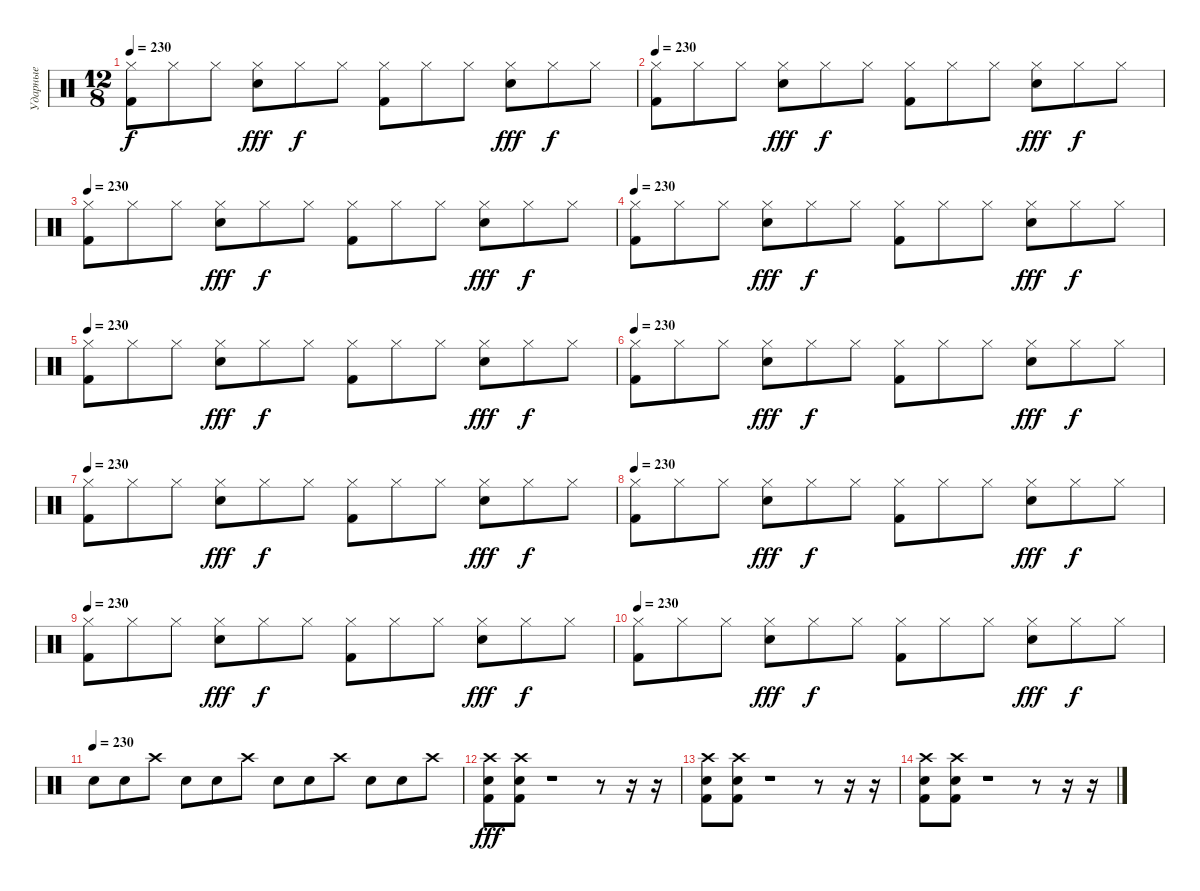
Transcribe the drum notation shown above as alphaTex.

\track ("Ударные" "Ударные") {instrument percussion}
\staff {score}
\articulation defaults
\ts (12 8)
\tempo 230
\clef neutral
\ks c
("Hi-Hat (closed)" "Kick (hit) 2").8{dy f} "Hi-Hat (closed)".8 "Hi-Hat (closed)".8 ("Hi-Hat (closed)" "Snare (hit) 2").8{dy fff} "Hi-Hat (closed)".8{dy f} "Hi-Hat (closed)".8 ("Hi-Hat (closed)" "Kick (hit) 2").8 "Hi-Hat (closed)".8 "Hi-Hat (closed)".8 ("Hi-Hat (closed)" "Snare (hit) 2").8{dy fff} "Hi-Hat (closed)".8{dy f} "Hi-Hat (closed)".8 |
\tempo 230
("Hi-Hat (closed)" "Kick (hit) 2").8 "Hi-Hat (closed)".8 "Hi-Hat (closed)".8 ("Hi-Hat (closed)" "Snare (hit) 2").8{dy fff} "Hi-Hat (closed)".8{dy f} "Hi-Hat (closed)".8 ("Hi-Hat (closed)" "Kick (hit) 2").8 "Hi-Hat (closed)".8 "Hi-Hat (closed)".8 ("Hi-Hat (closed)" "Snare (hit) 2").8{dy fff} "Hi-Hat (closed)".8{dy f} "Hi-Hat (closed)".8 |
\tempo 230
("Hi-Hat (closed)" "Kick (hit) 2").8 "Hi-Hat (closed)".8 "Hi-Hat (closed)".8 ("Hi-Hat (closed)" "Snare (hit) 2").8{dy fff} "Hi-Hat (closed)".8{dy f} "Hi-Hat (closed)".8 ("Hi-Hat (closed)" "Kick (hit) 2").8 "Hi-Hat (closed)".8 "Hi-Hat (closed)".8 ("Hi-Hat (closed)" "Snare (hit) 2").8{dy fff} "Hi-Hat (closed)".8{dy f} "Hi-Hat (closed)".8 |
\tempo 230
("Hi-Hat (closed)" "Kick (hit) 2").8 "Hi-Hat (closed)".8 "Hi-Hat (closed)".8 ("Hi-Hat (closed)" "Snare (hit) 2").8{dy fff} "Hi-Hat (closed)".8{dy f} "Hi-Hat (closed)".8 ("Hi-Hat (closed)" "Kick (hit) 2").8 "Hi-Hat (closed)".8 "Hi-Hat (closed)".8 ("Hi-Hat (closed)" "Snare (hit) 2").8{dy fff} "Hi-Hat (closed)".8{dy f} "Hi-Hat (closed)".8 |
\tempo 230
("Hi-Hat (closed)" "Kick (hit) 2").8 "Hi-Hat (closed)".8 "Hi-Hat (closed)".8 ("Hi-Hat (closed)" "Snare (hit) 2").8{dy fff} "Hi-Hat (closed)".8{dy f} "Hi-Hat (closed)".8 ("Hi-Hat (closed)" "Kick (hit) 2").8 "Hi-Hat (closed)".8 "Hi-Hat (closed)".8 ("Hi-Hat (closed)" "Snare (hit) 2").8{dy fff} "Hi-Hat (closed)".8{dy f} "Hi-Hat (closed)".8 |
\tempo 230
("Hi-Hat (closed)" "Kick (hit) 2").8 "Hi-Hat (closed)".8 "Hi-Hat (closed)".8 ("Hi-Hat (closed)" "Snare (hit) 2").8{dy fff} "Hi-Hat (closed)".8{dy f} "Hi-Hat (closed)".8 ("Hi-Hat (closed)" "Kick (hit) 2").8 "Hi-Hat (closed)".8 "Hi-Hat (closed)".8 ("Hi-Hat (closed)" "Snare (hit) 2").8{dy fff} "Hi-Hat (closed)".8{dy f} "Hi-Hat (closed)".8 |
\tempo 230
("Hi-Hat (closed)" "Kick (hit) 2").8 "Hi-Hat (closed)".8 "Hi-Hat (closed)".8 ("Hi-Hat (closed)" "Snare (hit) 2").8{dy fff} "Hi-Hat (closed)".8{dy f} "Hi-Hat (closed)".8 ("Hi-Hat (closed)" "Kick (hit) 2").8 "Hi-Hat (closed)".8 "Hi-Hat (closed)".8 ("Hi-Hat (closed)" "Snare (hit) 2").8{dy fff} "Hi-Hat (closed)".8{dy f} "Hi-Hat (closed)".8 |
\tempo 230
("Hi-Hat (closed)" "Kick (hit) 2").8 "Hi-Hat (closed)".8 "Hi-Hat (closed)".8 ("Hi-Hat (closed)" "Snare (hit) 2").8{dy fff} "Hi-Hat (closed)".8{dy f} "Hi-Hat (closed)".8 ("Hi-Hat (closed)" "Kick (hit) 2").8 "Hi-Hat (closed)".8 "Hi-Hat (closed)".8 ("Hi-Hat (closed)" "Snare (hit) 2").8{dy fff} "Hi-Hat (closed)".8{dy f} "Hi-Hat (closed)".8 |
\tempo 230
("Hi-Hat (closed)" "Kick (hit) 2").8 "Hi-Hat (closed)".8 "Hi-Hat (closed)".8 ("Hi-Hat (closed)" "Snare (hit) 2").8{dy fff} "Hi-Hat (closed)".8{dy f} "Hi-Hat (closed)".8 ("Hi-Hat (closed)" "Kick (hit) 2").8 "Hi-Hat (closed)".8 "Hi-Hat (closed)".8 ("Hi-Hat (closed)" "Snare (hit) 2").8{dy fff} "Hi-Hat (closed)".8{dy f} "Hi-Hat (closed)".8 |
\tempo 230
("Hi-Hat (closed)" "Kick (hit) 2").8 "Hi-Hat (closed)".8 "Hi-Hat (closed)".8 ("Hi-Hat (closed)" "Snare (hit) 2").8{dy fff} "Hi-Hat (closed)".8{dy f} "Hi-Hat (closed)".8 ("Hi-Hat (closed)" "Kick (hit) 2").8 "Hi-Hat (closed)".8 "Hi-Hat (closed)".8 ("Hi-Hat (closed)" "Snare (hit) 2").8{dy fff} "Hi-Hat (closed)".8{dy f} "Hi-Hat (closed)".8 |
\tempo (230)
"Snare (hit) 2".8 "Snare (hit) 2".8 "Crash high (hit)".8 "Snare (hit) 2".8 "Snare (hit) 2".8 "Crash high (hit)".8 "Snare (hit) 2".8 "Snare (hit) 2".8 "Crash high (hit)".8 "Snare (hit) 2".8 "Snare (hit) 2".8 "Crash high (hit)".8 |
("Crash high (hit)" "Snare (hit) 2" "Kick (hit) 2").8{dy fff volume 8} ("Crash high (hit)" "Snare (hit) 2" "Kick (hit) 2").8 r.1 r.8 r.16 r.16 |
("Crash high (hit)" "Snare (hit) 2" "Kick (hit) 2").8{volume 8} ("Crash high (hit)" "Snare (hit) 2" "Kick (hit) 2").8 r.1 r.8 r.16 r.16 |
("Crash high (hit)" "Snare (hit) 2" "Kick (hit) 2").8 ("Crash high (hit)" "Snare (hit) 2" "Kick (hit) 2").8 r.1 r.8 r.16 r.16
